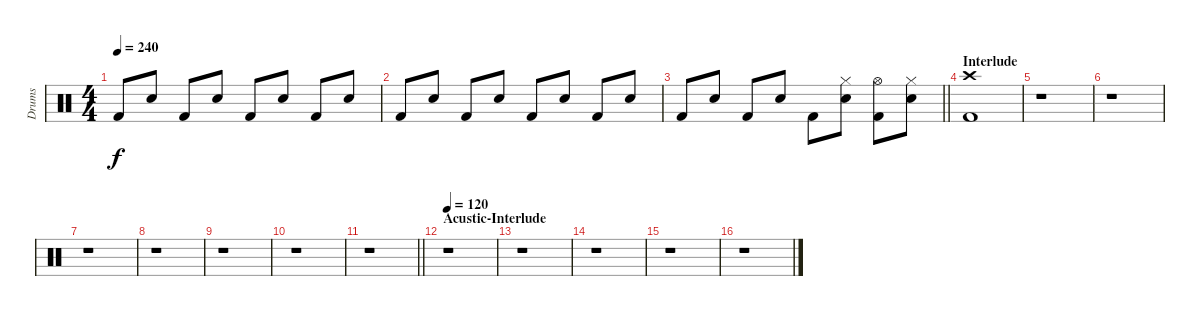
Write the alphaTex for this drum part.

\track ("Drums" "Drums") {instrument percussion}
\staff {score}
\articulation defaults
\ts (4 4)
\tempo 240
\clef neutral
\ks c "Kick (hit) 2".8{dy f} "Snare (hit) 2".8 "Kick (hit) 2".8 "Snare (hit) 2".8 "Kick (hit) 2".8 "Snare (hit) 2".8 "Kick (hit) 2".8 "Snare (hit) 2".8
|
"Kick (hit) 2".8 "Snare (hit) 2".8 "Kick (hit) 2".8 "Snare (hit) 2".8 "Kick (hit) 2".8 "Snare (hit) 2".8 "Kick (hit) 2".8 "Snare (hit) 2".8 |
\barLineRight lightlight "Kick (hit) 2".8 "Snare (hit) 2".8 "Kick (hit) 2".8 "Snare (hit) 2".8 "Kick (hit) 2".8
("Hi-Hat (closed)" "Snare (hit) 2").8 ("Hi-Hat (open)" "Kick (hit) 2").8 ("Hi-Hat (closed)" "Snare (hit) 2").8 |
\section ("" "Interlude")
("Crash high (hit)" "Kick (hit) 2").1 |
r.1 |
r.1 |
r.1 |
r.1 |
r.1 |
r.1 |
\barLineRight lightlight
r.1 |
\section ("" "Acustic-Interlude")
\tempo 120
r.1 |
r.1 |
r.1 |
r.1 |
r.1
